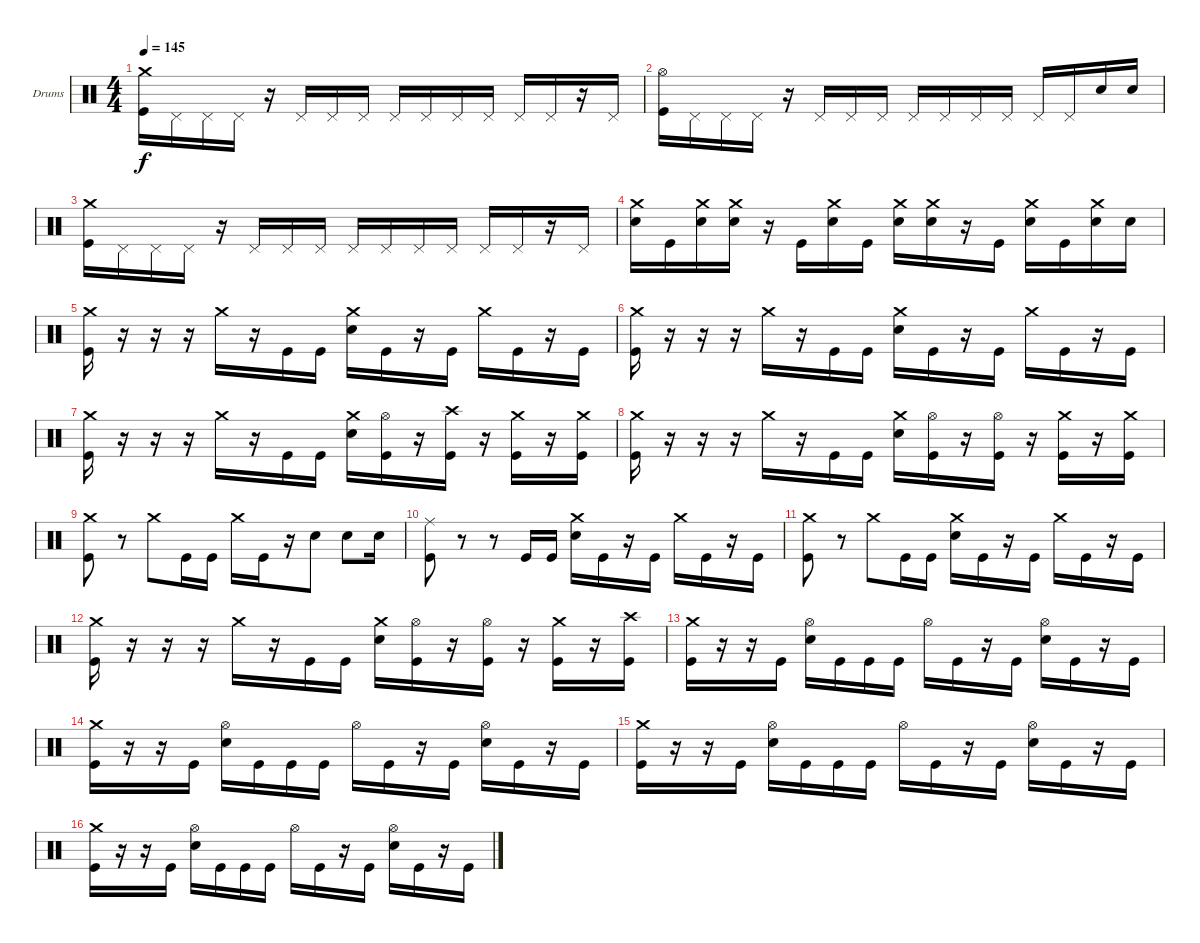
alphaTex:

\defaultSystemsLayout 4
\bracketExtendMode groupsimilarinstruments
\firstSystemTrackNameOrientation horizontal
\otherSystemsTrackNameOrientation horizontal
\track ("Moe Carlson" "Drums") {instrument percussion}
\staff {score}
\articulation defaults
\ts (4 4)
\tempo 145
\clef neutral
\ks c
("Kick (hit)" "Crash medium (hit)").16{dy f} "Pedal Hi-Hat (hit)".16 "Pedal Hi-Hat (hit)".16 "Pedal Hi-Hat (hit)".16 r.16 "Pedal Hi-Hat (hit)".16 "Pedal Hi-Hat (hit)".16 "Pedal Hi-Hat (hit)".16 "Pedal Hi-Hat (hit)".16 "Pedal Hi-Hat (hit)".16 "Pedal Hi-Hat (hit)".16 "Pedal Hi-Hat (hit)".16 "Pedal Hi-Hat (hit)".16 "Pedal Hi-Hat (hit)".16 r.16 "Pedal Hi-Hat (hit)".16 |
("Kick (hit)" "Hi-Hat (open)").16 "Pedal Hi-Hat (hit)".16 "Pedal Hi-Hat (hit)".16 "Pedal Hi-Hat (hit)".16 r.16 "Pedal Hi-Hat (hit)".16 "Pedal Hi-Hat (hit)".16 "Pedal Hi-Hat (hit)".16 "Pedal Hi-Hat (hit)".16 "Pedal Hi-Hat (hit)".16 "Pedal Hi-Hat (hit)".16 "Pedal Hi-Hat (hit)".16 "Pedal Hi-Hat (hit)".16 "Pedal Hi-Hat (hit)".16 "Snare (hit) 2".16 "Snare (hit) 2".16 |
("Kick (hit)" "Crash medium (hit)").16 "Pedal Hi-Hat (hit)".16 "Pedal Hi-Hat (hit)".16 "Pedal Hi-Hat (hit)".16 r.16 "Pedal Hi-Hat (hit)".16 "Pedal Hi-Hat (hit)".16 "Pedal Hi-Hat (hit)".16 "Pedal Hi-Hat (hit)".16 "Pedal Hi-Hat (hit)".16 "Pedal Hi-Hat (hit)".16 "Pedal Hi-Hat (hit)".16 "Pedal Hi-Hat (hit)".16 "Pedal Hi-Hat (hit)".16 r.16 "Pedal Hi-Hat (hit)".16 |
("Crash medium (hit)" "Snare (hit) 2").16 "Kick (hit)".16 ("Snare (hit) 2" "Crash medium (hit)").16 ("Snare (hit) 2" "Crash medium (hit)").16 r.16 "Kick (hit)".16 ("Snare (hit) 2" "Crash medium (hit)").16 "Kick (hit)".16 ("Snare (hit) 2" "Crash medium (hit)").16 ("Snare (hit) 2" "Crash medium (hit)").16 r.16 "Kick (hit)".16 ("Snare (hit) 2" "Crash medium (hit)").16 "Kick (hit)".16 ("Snare (hit) 2" "Crash medium (hit)").16 "Snare (hit) 2".16 |
("Crash medium (hit)" "Kick (hit)").16 r.16 r.16 r.16 "Crash medium (hit)".16 r.16 "Kick (hit)".16 "Kick (hit)".16 ("Snare (hit) 2" "Crash medium (hit)").16 "Kick (hit)".16 r.16 "Kick (hit)".16 "Crash medium (hit)".16 "Kick (hit)".16 r.16 "Kick (hit)".16 |
("Crash medium (hit)" "Kick (hit)").16 r.16 r.16 r.16 "Crash medium (hit)".16 r.16 "Kick (hit)".16 "Kick (hit)".16 ("Snare (hit) 2" "Crash medium (hit)").16 "Kick (hit)".16 r.16 "Kick (hit)".16 "Crash medium (hit)".16 "Kick (hit)".16 r.16 "Kick (hit)".16 |
("Crash medium (hit)" "Kick (hit)").16 r.16 r.16 r.16 "Crash medium (hit)".16 r.16 "Kick (hit)".16 "Kick (hit)".16 ("Snare (hit) 2" "Crash medium (hit)").16 ("Kick (hit)" "Hi-Hat (open)").16 r.16 ("Kick (hit)" "Crash high (hit)").16 r.16 ("Kick (hit)" "Crash medium (hit)").16 r.16 ("Kick (hit)" "Crash medium (hit)").16 |
("Crash medium (hit)" "Kick (hit)").16 r.16 r.16 r.16 "Crash medium (hit)".16 r.16 "Kick (hit)".16 "Kick (hit)".16 ("Snare (hit) 2" "Crash medium (hit)").16 ("Kick (hit)" "Hi-Hat (open)").16 r.16 ("Kick (hit)" "Hi-Hat (open)").16 r.16 ("Kick (hit)" "Crash medium (hit)").16 r.16 ("Kick (hit)" "Crash medium (hit)").16 |
("Crash medium (hit)" "Kick (hit)").8 r.8 "Crash medium (hit)".8 "Kick (hit)".16 "Kick (hit)".16 "Crash medium (hit)".16 "Kick (hit)".16 r.16 "Snare (hit) 2".8 "Snare (hit) 2".8 "Snare (hit) 2".16 |
("Kick (hit)" "Ride (middle)").8 r.8 r.8 "Kick (hit)".16 "Kick (hit)".16 ("Snare (hit) 2" "Crash medium (hit)").16 "Kick (hit)".16 r.16 "Kick (hit)".16 "Crash medium (hit)".16 "Kick (hit)".16 r.16 "Kick (hit)".16 |
("Kick (hit)" "Crash medium (hit)").8 r.8 "Crash medium (hit)".8 "Kick (hit)".16 "Kick (hit)".16 ("Snare (hit) 2" "Crash medium (hit)").16 "Kick (hit)".16 r.16 "Kick (hit)".16 "Crash medium (hit)".16 "Kick (hit)".16 r.16 "Kick (hit)".16 |
("Crash medium (hit)" "Kick (hit)").16 r.16 r.16 r.16 "Crash medium (hit)".16 r.16 "Kick (hit)".16 "Kick (hit)".16 ("Snare (hit) 2" "Crash medium (hit)").16 ("Kick (hit)" "Hi-Hat (open)").16 r.16 ("Kick (hit)" "Hi-Hat (open)").16 r.16 ("Kick (hit)" "Crash medium (hit)").16 r.16 ("Kick (hit)" "Crash high (hit)").16 |
("Crash medium (hit)" "Kick (hit)").16 r.16 r.16 "Kick (hit)".16 ("Snare (hit) 2" "Hi-Hat (open)").16 "Kick (hit)".16 "Kick (hit)".16 "Kick (hit)".16 "Hi-Hat (open)".16 "Kick (hit)".16 r.16 "Kick (hit)".16 ("Snare (hit) 2" "Hi-Hat (open)").16 "Kick (hit)".16 r.16 "Kick (hit)".16 |
("Crash medium (hit)" "Kick (hit)").16 r.16 r.16 "Kick (hit)".16 ("Snare (hit) 2" "Hi-Hat (open)").16 "Kick (hit)".16 "Kick (hit)".16 "Kick (hit)".16 "Hi-Hat (open)".16 "Kick (hit)".16 r.16 "Kick (hit)".16 ("Snare (hit) 2" "Hi-Hat (open)").16 "Kick (hit)".16 r.16 "Kick (hit)".16 |
("Crash medium (hit)" "Kick (hit)").16 r.16 r.16 "Kick (hit)".16 ("Snare (hit) 2" "Hi-Hat (open)").16 "Kick (hit)".16 "Kick (hit)".16 "Kick (hit)".16 "Hi-Hat (open)".16 "Kick (hit)".16 r.16 "Kick (hit)".16 ("Snare (hit) 2" "Hi-Hat (open)").16 "Kick (hit)".16 r.16 "Kick (hit)".16 |
("Crash medium (hit)" "Kick (hit)").16 r.16 r.16 "Kick (hit)".16 ("Snare (hit) 2" "Hi-Hat (open)").16 "Kick (hit)".16 "Kick (hit)".16 "Kick (hit)".16 "Hi-Hat (open)".16 "Kick (hit)".16 r.16 "Kick (hit)".16 ("Snare (hit) 2" "Hi-Hat (open)").16 "Kick (hit)".16 r.16 "Kick (hit)".16
